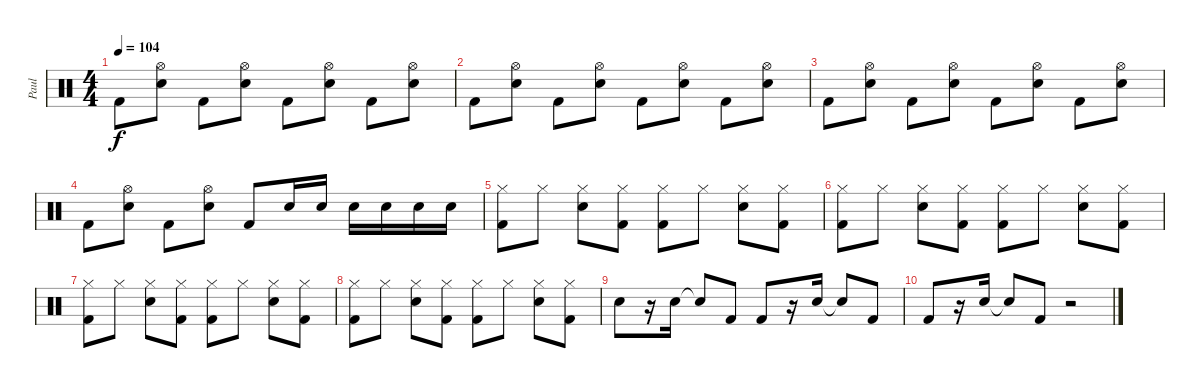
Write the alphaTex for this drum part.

\track ("Paul" "Paul") {instrument percussion}
\staff {score}
\articulation defaults
\ts (4 4)
\tempo 104
\clef neutral
\ks c "Kick (hit) 2".8{dy f}
("Hi-Hat (open)" "Snare (hit) 2").8 "Kick (hit) 2".8 ("Hi-Hat (open)" "Snare (hit) 2").8 "Kick (hit) 2".8 ("Hi-Hat (open)" "Snare (hit) 2").8 "Kick (hit) 2".8 ("Hi-Hat (open)" "Snare (hit) 2").8 |
"Kick (hit) 2".8 ("Hi-Hat (open)" "Snare (hit) 2").8 "Kick (hit) 2".8 ("Hi-Hat (open)" "Snare (hit) 2").8 "Kick (hit) 2".8 ("Hi-Hat (open)" "Snare (hit) 2").8 "Kick (hit) 2".8 ("Hi-Hat (open)" "Snare (hit) 2").8 |
"Kick (hit) 2".8 ("Hi-Hat (open)" "Snare (hit) 2").8 "Kick (hit) 2".8 ("Hi-Hat (open)" "Snare (hit) 2").8 "Kick (hit) 2".8 ("Hi-Hat (open)" "Snare (hit) 2").8 "Kick (hit) 2".8 ("Hi-Hat (open)" "Snare (hit) 2").8 |
"Kick (hit) 2".8 ("Hi-Hat (open)" "Snare (hit) 2").8 "Kick (hit) 2".8 ("Hi-Hat (open)" "Snare (hit) 2").8 "Kick (hit) 2".8 "Snare (hit) 2".16 "Snare (hit) 2".16 "Snare (hit) 2".16 "Snare (hit) 2".16 "Snare (hit) 2".16 "Snare (hit) 2".16 |
("Hi-Hat (closed)" "Kick (hit) 2").8 "Hi-Hat (closed)".8 ("Hi-Hat (closed)" "Snare (hit) 2").8 ("Hi-Hat (closed)" "Kick (hit) 2").8 ("Hi-Hat (closed)" "Kick (hit) 2").8 "Hi-Hat (closed)".8 ("Hi-Hat (closed)" "Snare (hit) 2").8 ("Hi-Hat (closed)" "Kick (hit) 2").8 |
("Hi-Hat (closed)" "Kick (hit) 2").8 "Hi-Hat (closed)".8 ("Hi-Hat (closed)" "Snare (hit) 2").8 ("Hi-Hat (closed)" "Kick (hit) 2").8 ("Hi-Hat (closed)" "Kick (hit) 2").8 "Hi-Hat (closed)".8 ("Hi-Hat (closed)" "Snare (hit) 2").8 ("Hi-Hat (closed)" "Kick (hit) 2").8 |
("Hi-Hat (closed)" "Kick (hit) 2").8 "Hi-Hat (closed)".8 ("Hi-Hat (closed)" "Snare (hit) 2").8 ("Hi-Hat (closed)" "Kick (hit) 2").8 ("Hi-Hat (closed)" "Kick (hit) 2").8 "Hi-Hat (closed)".8 ("Hi-Hat (closed)" "Snare (hit) 2").8 ("Hi-Hat (closed)" "Kick (hit) 2").8 |
("Hi-Hat (closed)" "Kick (hit) 2").8 "Hi-Hat (closed)".8 ("Hi-Hat (closed)" "Snare (hit) 2").8 ("Hi-Hat (closed)" "Kick (hit) 2").8 ("Hi-Hat (closed)" "Kick (hit) 2").8 "Hi-Hat (closed)".8 ("Hi-Hat (closed)" "Snare (hit) 2").8 ("Hi-Hat (closed)" "Kick (hit) 2").8 |
"Snare (hit) 2".8 r.16 "Snare (hit) 2".16 "Snare (hit)"{t}.8 "Kick (hit) 2".8 "Kick (hit) 2".8 r.16 "Snare (hit) 2".16 "Snare (hit)"{t}.8 "Kick (hit) 2".8 |
"Kick (hit) 2".8 r.16 "Snare (hit) 2".16 "Snare (hit)"{t}.8 "Kick (hit) 2".8 r.2
